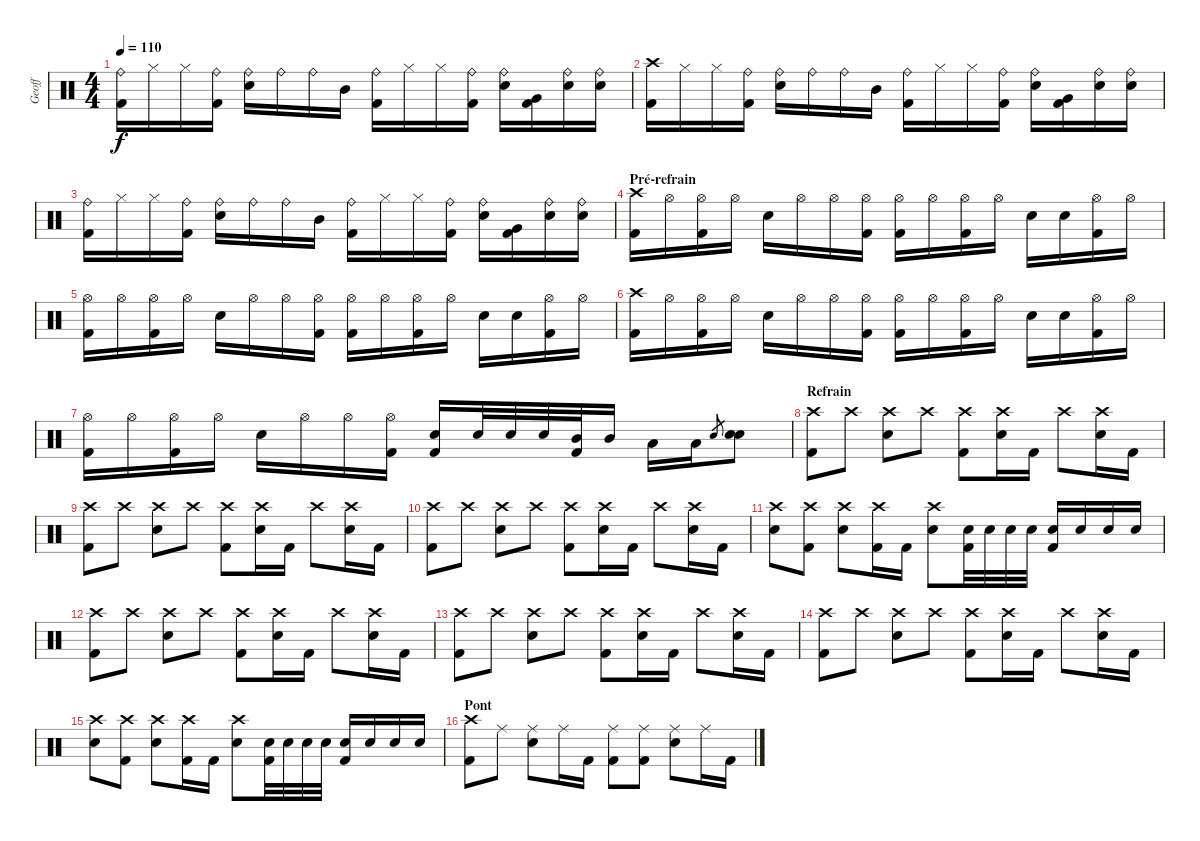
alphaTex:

\track ("Geoff" "Geoff") {instrument percussion}
\staff {score}
\articulation defaults
\ts (4 4)
\tempo 110
\clef neutral
\ks c
("Ride (bell)" "Kick (hit) 2").16{dy f} "Hi-Hat (closed)".16 "Hi-Hat (closed)".16 ("Ride (bell)" "Kick (hit) 2").16 ("Ride (bell)" "Electric Snare (hit)").16 "Ride (bell)".16 "Ride (bell)".16 "Mid Tom (hit)".16 ("Ride (bell)" "Kick (hit) 2").16 "Hi-Hat (closed)".16 "Hi-Hat (closed)".16 ("Ride (bell)" "Kick (hit) 2").16 ("Ride (bell)" "Electric Snare (hit)").16 ("Very Low Tom (hit)" "Kick (hit) 2").16 ("Ride (bell)" "Electric Snare (hit)").16 ("Ride (bell)" "Electric Snare (hit)").16 |
("Crash high (hit)" "Kick (hit) 2").16 "Hi-Hat (closed)".16 "Hi-Hat (closed)".16 ("Ride (bell)" "Kick (hit) 2").16 ("Ride (bell)" "Electric Snare (hit)").16 "Ride (bell)".16 "Ride (bell)".16 "Mid Tom (hit)".16 ("Ride (bell)" "Kick (hit) 2").16 "Hi-Hat (closed)".16 "Hi-Hat (closed)".16 ("Ride (bell)" "Kick (hit) 2").16 ("Ride (bell)" "Electric Snare (hit)").16 ("Very Low Tom (hit)" "Kick (hit) 2").16 ("Ride (bell)" "Electric Snare (hit)").16 ("Ride (bell)" "Electric Snare (hit)").16 |
("Ride (bell)" "Kick (hit) 2").16 "Hi-Hat (closed)".16 "Hi-Hat (closed)".16 ("Ride (bell)" "Kick (hit) 2").16 ("Ride (bell)" "Electric Snare (hit)").16 "Ride (bell)".16 "Ride (bell)".16 "Mid Tom (hit)".16 ("Ride (bell)" "Kick (hit) 2").16 "Hi-Hat (closed)".16 "Hi-Hat (closed)".16 ("Ride (bell)" "Kick (hit) 2").16 ("Ride (bell)" "Electric Snare (hit)").16 ("Very Low Tom (hit)" "Kick (hit) 2").16 ("Ride (bell)" "Electric Snare (hit)").16 ("Ride (bell)" "Electric Snare (hit)").16 |
\section ("" "Pré-refrain")
("Crash high (hit)" "Kick (hit) 2").16 "Hi-Hat (open)".16 ("Hi-Hat (open)" "Kick (hit) 2").16 "Hi-Hat (open)".16 "Electric Snare (hit)".16 "Hi-Hat (open)".16 "Hi-Hat (open)".16 ("Hi-Hat (open)" "Kick (hit) 2").16 ("Hi-Hat (open)" "Kick (hit) 2").16 "Hi-Hat (open)".16 ("Hi-Hat (open)" "Kick (hit) 2").16 "Hi-Hat (open)".16 "Electric Snare (hit)".16 "Electric Snare (hit)".16 ("Hi-Hat (open)" "Kick (hit) 2").16 "Hi-Hat (open)".16 |
("Hi-Hat (open)" "Kick (hit) 2").16 "Hi-Hat (open)".16 ("Hi-Hat (open)" "Kick (hit) 2").16 "Hi-Hat (open)".16 "Electric Snare (hit)".16 "Hi-Hat (open)".16 "Hi-Hat (open)".16 ("Hi-Hat (open)" "Kick (hit) 2").16 ("Hi-Hat (open)" "Kick (hit) 2").16 "Hi-Hat (open)".16 ("Hi-Hat (open)" "Kick (hit) 2").16 "Hi-Hat (open)".16 "Electric Snare (hit)".16 "Electric Snare (hit)".16 ("Hi-Hat (open)" "Kick (hit) 2").16 "Hi-Hat (open)".16 |
("Crash high (hit)" "Kick (hit) 2").16 "Hi-Hat (open)".16 ("Hi-Hat (open)" "Kick (hit) 2").16 "Hi-Hat (open)".16 "Electric Snare (hit)".16 "Hi-Hat (open)".16 "Hi-Hat (open)".16 ("Hi-Hat (open)" "Kick (hit) 2").16 ("Hi-Hat (open)" "Kick (hit) 2").16 "Hi-Hat (open)".16 ("Hi-Hat (open)" "Kick (hit) 2").16 "Hi-Hat (open)".16 "Electric Snare (hit)".16 "Electric Snare (hit)".16 ("Hi-Hat (open)" "Kick (hit) 2").16 "Hi-Hat (open)".16 |
("Hi-Hat (open)" "Kick (hit) 2").16 "Hi-Hat (open)".16 ("Hi-Hat (open)" "Kick (hit) 2").16 "Hi-Hat (open)".16 "Electric Snare (hit)".16 "Hi-Hat (open)".16 "Hi-Hat (open)".16 ("Hi-Hat (open)" "Kick (hit) 2").16 ("Electric Snare (hit)" "Kick (hit) 2").16 "Electric Snare (hit)".32 "Electric Snare (hit)".32 "Electric Snare (hit)".32 ("Mid Tom (hit)" "Kick (hit) 2").32 "Mid Tom (hit)".16 "Low Tom (hit)".16 "Low Tom (hit)".16 "Electric Snare (hit)".8{gr} ("Electric Snare (hit)" "Electric Snare (hit)").8 |
\section ("" "Refrain")
("Crash high (hit)" "Kick (hit) 2").8 "Crash high (hit)".8 ("Crash high (hit)" "Electric Snare (hit)").8 "Crash high (hit)".8 ("Crash high (hit)" "Kick (hit) 2").8 ("Crash high (hit)" "Electric Snare (hit)").16 "Kick (hit) 2".16 "Crash high (hit)".8 ("Crash high (hit)" "Electric Snare (hit)").16 "Kick (hit) 2".16 |
("Crash high (hit)" "Kick (hit) 2").8 "Crash high (hit)".8 ("Crash high (hit)" "Electric Snare (hit)").8 "Crash high (hit)".8 ("Crash high (hit)" "Kick (hit) 2").8 ("Crash high (hit)" "Electric Snare (hit)").16 "Kick (hit) 2".16 "Crash high (hit)".8 ("Crash high (hit)" "Electric Snare (hit)").16 "Kick (hit) 2".16 |
("Crash high (hit)" "Kick (hit) 2").8 "Crash high (hit)".8 ("Crash high (hit)" "Electric Snare (hit)").8 "Crash high (hit)".8 ("Crash high (hit)" "Kick (hit) 2").8 ("Crash high (hit)" "Electric Snare (hit)").16 "Kick (hit) 2".16 "Crash high (hit)".8 ("Crash high (hit)" "Electric Snare (hit)").16 "Kick (hit) 2".16 |
("Crash high (hit)" "Electric Snare (hit)").8 ("Crash high (hit)" "Kick (hit) 2").8 ("Crash high (hit)" "Electric Snare (hit)").8 ("Crash high (hit)" "Kick (hit) 2").16 "Kick (hit) 2".16 ("Crash high (hit)" "Electric Snare (hit)").8 ("Electric Snare (hit)" "Kick (hit) 2").32 "Electric Snare (hit)".32 "Electric Snare (hit)".32 "Electric Snare (hit)".32 ("Electric Snare (hit)" "Kick (hit) 2").16 "Electric Snare (hit)".16 "Electric Snare (hit)".16 "Electric Snare (hit)".16 |
("Crash high (hit)" "Kick (hit) 2").8 "Crash high (hit)".8 ("Crash high (hit)" "Electric Snare (hit)").8 "Crash high (hit)".8 ("Crash high (hit)" "Kick (hit) 2").8 ("Crash high (hit)" "Electric Snare (hit)").16 "Kick (hit) 2".16 "Crash high (hit)".8 ("Crash high (hit)" "Electric Snare (hit)").16 "Kick (hit) 2".16 |
("Crash high (hit)" "Kick (hit) 2").8 "Crash high (hit)".8 ("Crash high (hit)" "Electric Snare (hit)").8 "Crash high (hit)".8 ("Crash high (hit)" "Kick (hit) 2").8 ("Crash high (hit)" "Electric Snare (hit)").16 "Kick (hit) 2".16 "Crash high (hit)".8 ("Crash high (hit)" "Electric Snare (hit)").16 "Kick (hit) 2".16 |
("Crash high (hit)" "Kick (hit) 2").8 "Crash high (hit)".8 ("Crash high (hit)" "Electric Snare (hit)").8 "Crash high (hit)".8 ("Crash high (hit)" "Kick (hit) 2").8 ("Crash high (hit)" "Electric Snare (hit)").16 "Kick (hit) 2".16 "Crash high (hit)".8 ("Crash high (hit)" "Electric Snare (hit)").16 "Kick (hit) 2".16 |
("Crash high (hit)" "Electric Snare (hit)").8 ("Crash high (hit)" "Kick (hit) 2").8 ("Crash high (hit)" "Electric Snare (hit)").8 ("Crash high (hit)" "Kick (hit) 2").16 "Kick (hit) 2".16 ("Crash high (hit)" "Electric Snare (hit)").8 ("Electric Snare (hit)" "Kick (hit) 2").32 "Electric Snare (hit)".32 "Electric Snare (hit)".32 "Electric Snare (hit)".32 ("Electric Snare (hit)" "Kick (hit) 2").16 "Electric Snare (hit)".16 "Electric Snare (hit)".16 "Electric Snare (hit)".16 |
\section ("" "Pont")
("Crash high (hit)" "Kick (hit) 2").8 "Ride (middle)".8 ("Ride (middle)" "Electric Snare (hit)").8 "Ride (middle)".16 "Kick (hit) 2".16 ("Ride (middle)" "Kick (hit) 2").8 ("Ride (middle)" "Kick (hit) 2").8 ("Ride (middle)" "Electric Snare (hit)").8 "Ride (middle)".16 "Kick (hit) 2".16
